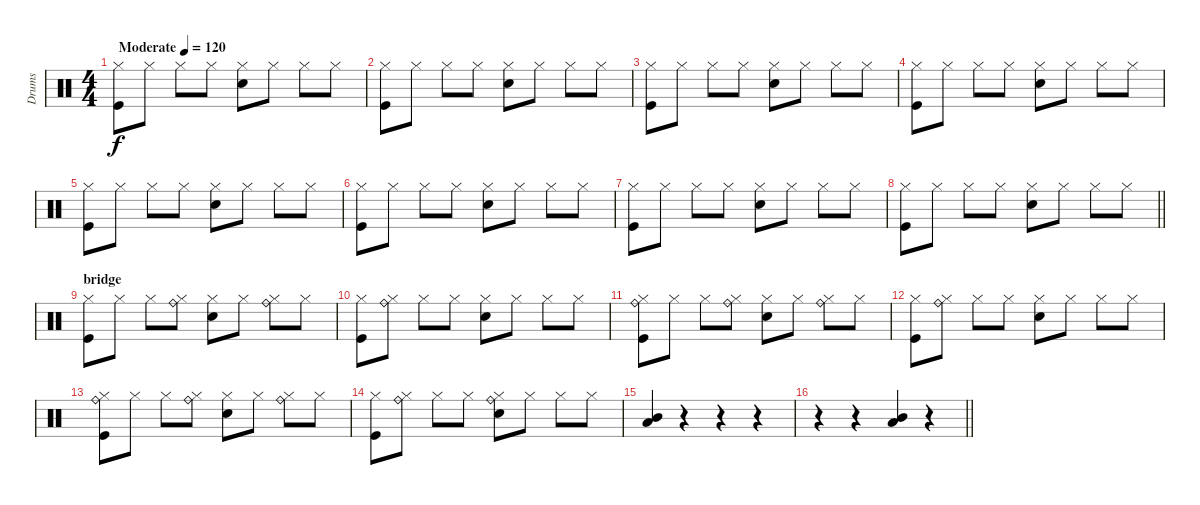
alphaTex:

\track ("Drums" "Drums") {instrument percussion}
\staff {score}
\articulation defaults
\ts (4 4)
\tempo (120 "Moderate")
\tempo 160
\tempo (120 "Moderate")
\clef neutral
\ks c
("Hi-Hat (closed)" "Kick (hit)").8{dy f} "Hi-Hat (closed)".8 "Hi-Hat (closed)".8 "Hi-Hat (closed)".8 ("Hi-Hat (closed)" "Snare (hit) 2").8 "Hi-Hat (closed)".8 "Hi-Hat (closed)".8 "Hi-Hat (closed)".8 |
("Hi-Hat (closed)" "Kick (hit)").8 "Hi-Hat (closed)".8 "Hi-Hat (closed)".8 "Hi-Hat (closed)".8 ("Hi-Hat (closed)" "Snare (hit) 2").8 "Hi-Hat (closed)".8 "Hi-Hat (closed)".8 "Hi-Hat (closed)".8 |
("Hi-Hat (closed)" "Kick (hit)").8 "Hi-Hat (closed)".8 "Hi-Hat (closed)".8 "Hi-Hat (closed)".8 ("Hi-Hat (closed)" "Snare (hit) 2").8 "Hi-Hat (closed)".8 "Hi-Hat (closed)".8 "Hi-Hat (closed)".8 |
("Hi-Hat (closed)" "Kick (hit)").8 "Hi-Hat (closed)".8 "Hi-Hat (closed)".8 "Hi-Hat (closed)".8 ("Hi-Hat (closed)" "Snare (hit) 2").8 "Hi-Hat (closed)".8 "Hi-Hat (closed)".8 "Hi-Hat (closed)".8 |
("Hi-Hat (closed)" "Kick (hit)").8 "Hi-Hat (closed)".8 "Hi-Hat (closed)".8 "Hi-Hat (closed)".8 ("Hi-Hat (closed)" "Snare (hit) 2").8 "Hi-Hat (closed)".8 "Hi-Hat (closed)".8 "Hi-Hat (closed)".8 |
("Hi-Hat (closed)" "Kick (hit)").8 "Hi-Hat (closed)".8 "Hi-Hat (closed)".8 "Hi-Hat (closed)".8 ("Hi-Hat (closed)" "Snare (hit) 2").8 "Hi-Hat (closed)".8 "Hi-Hat (closed)".8 "Hi-Hat (closed)".8 |
("Hi-Hat (closed)" "Kick (hit)").8 "Hi-Hat (closed)".8 "Hi-Hat (closed)".8 "Hi-Hat (closed)".8 ("Hi-Hat (closed)" "Snare (hit) 2").8 "Hi-Hat (closed)".8 "Hi-Hat (closed)".8 "Hi-Hat (closed)".8 |
\barLineRight lightlight
("Hi-Hat (closed)" "Kick (hit)").8 "Hi-Hat (closed)".8 "Hi-Hat (closed)".8 "Hi-Hat (closed)".8 ("Hi-Hat (closed)" "Snare (hit) 2").8 "Hi-Hat (closed)".8 "Hi-Hat (closed)".8 "Hi-Hat (closed)".8 |
\section ("" "bridge")
("Hi-Hat (closed)" "Kick (hit)").8 "Hi-Hat (closed)".8 "Hi-Hat (closed)".8 ("Ride (bell)" "Hi-Hat (closed)").8 ("Hi-Hat (closed)" "Snare (hit) 2").8 "Hi-Hat (closed)".8 ("Ride (bell)" "Hi-Hat (closed)").8 "Hi-Hat (closed)".8 |
("Hi-Hat (closed)" "Kick (hit)").8 ("Ride (bell)" "Hi-Hat (closed)").8 "Hi-Hat (closed)".8 "Hi-Hat (closed)".8 ("Hi-Hat (closed)" "Snare (hit) 2").8 "Hi-Hat (closed)".8 "Hi-Hat (closed)".8 "Hi-Hat (closed)".8 |
("Ride (bell)" "Hi-Hat (closed)" "Kick (hit)").8 "Hi-Hat (closed)".8 "Hi-Hat (closed)".8 ("Ride (bell)" "Hi-Hat (closed)").8 ("Hi-Hat (closed)" "Snare (hit) 2").8 "Hi-Hat (closed)".8 ("Ride (bell)" "Hi-Hat (closed)").8 "Hi-Hat (closed)".8 |
("Hi-Hat (closed)" "Kick (hit)").8 ("Ride (bell)" "Hi-Hat (closed)").8 "Hi-Hat (closed)".8 "Hi-Hat (closed)".8 ("Hi-Hat (closed)" "Snare (hit) 2").8 "Hi-Hat (closed)".8 "Hi-Hat (closed)".8 "Hi-Hat (closed)".8 |
("Ride (bell)" "Hi-Hat (closed)" "Kick (hit)").8 "Hi-Hat (closed)".8 "Hi-Hat (closed)".8 ("Ride (bell)" "Hi-Hat (closed)").8 ("Hi-Hat (closed)" "Snare (hit) 2").8 "Hi-Hat (closed)".8 ("Ride (bell)" "Hi-Hat (closed)").8 "Hi-Hat (closed)".8 |
("Hi-Hat (closed)" "Kick (hit)").8 ("Ride (bell)" "Hi-Hat (closed)").8 "Hi-Hat (closed)".8 "Hi-Hat (closed)".8 ("Ride (bell)" "Hi-Hat (closed)" "Snare (hit) 2").8 "Hi-Hat (closed)".8 "Hi-Hat (closed)".8 "Hi-Hat (closed)".8 |
("Low Tom (hit)" "Mid Tom (hit)").4 r.4 r.4 r.4 |
\barLineRight lightlight
r.4 r.4 ("Low Tom (hit)" "Mid Tom (hit)").4 r.4
